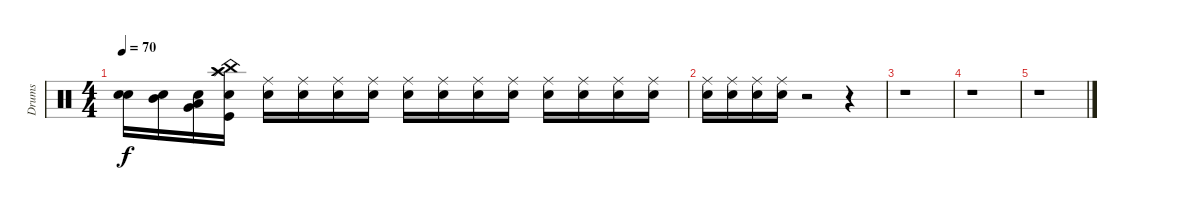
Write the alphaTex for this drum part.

\track ("Drums" "Drums") {instrument percussion}
\staff {score}
\articulation defaults
\ts (4 4)
\tempo 70
\clef neutral
\ks c
("Snare (hit)" "Snare (hit) 2").16{dy f} ("Snare (hit)" "Mid Tom (hit)").16 ("Snare (hit)" "Very Low Tom (hit)" "Low Tom (hit)").16 ("Snare (hit)" "Kick (hit)" "China (hit)" "Splash (hit)" "Crash high (hit)").16 ("Snare (hit)" "Ride (middle)").16 ("Snare (hit)" "Ride (middle)").16 ("Snare (hit)" "Ride (middle)").16 ("Snare (hit)" "Ride (middle)").16 ("Snare (hit)" "Ride (middle)").16 ("Snare (hit)" "Ride (middle)").16 ("Snare (hit)" "Ride (middle)").16 ("Snare (hit)" "Ride (middle)").16 ("Snare (hit)" "Ride (middle)").16 ("Snare (hit)" "Ride (middle)").16 ("Snare (hit)" "Ride (middle)").16 ("Snare (hit)" "Ride (middle)").16 |
("Snare (hit)" "Ride (middle)").16 ("Snare (hit)" "Ride (middle)").16 ("Snare (hit)" "Ride (middle)").16 ("Snare (hit)" "Ride (middle)").16 r.2 r.4 |
r.1 |
r.1 |
r.1
